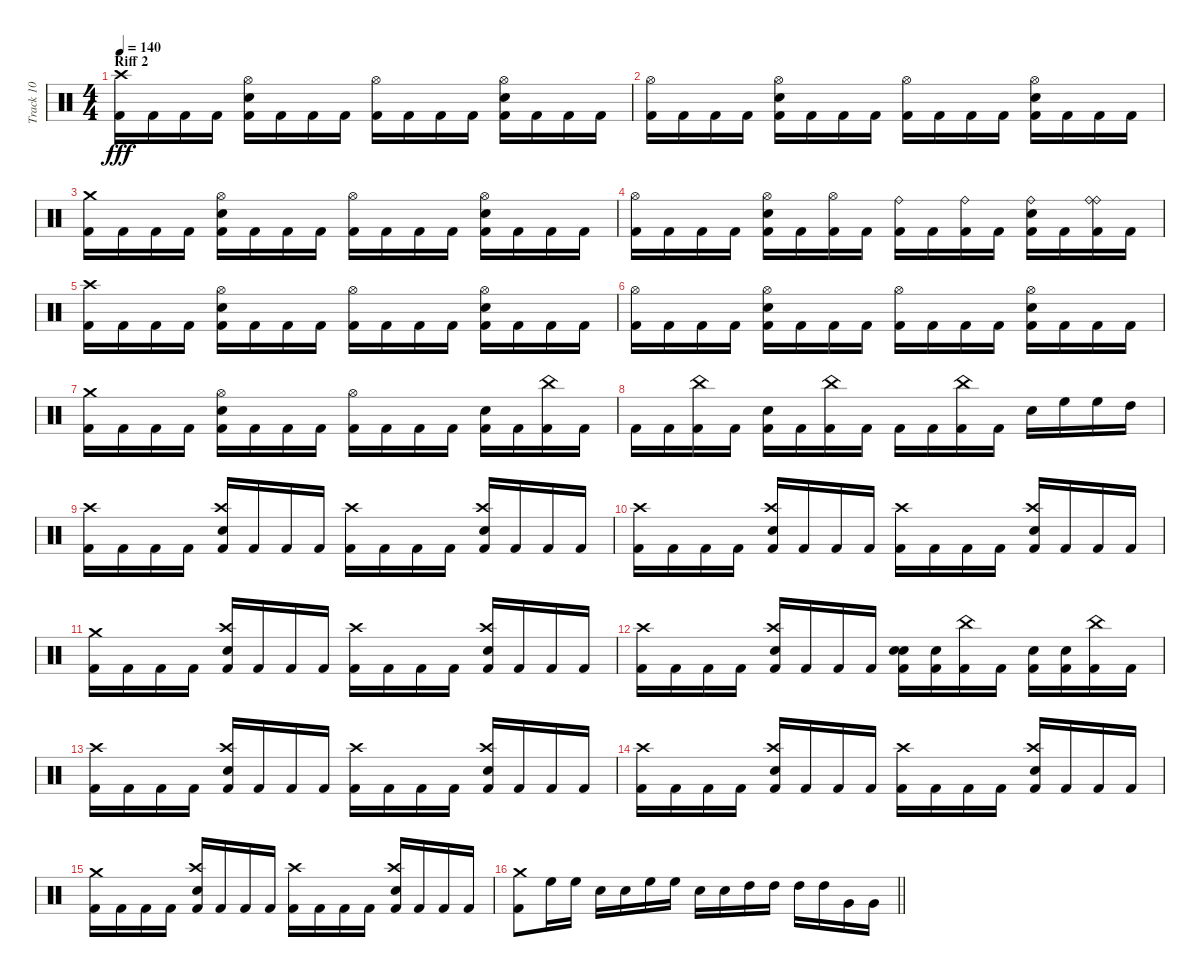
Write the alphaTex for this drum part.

\track ("Track 10" "Track 10") {instrument percussion}
\staff {score}
\articulation defaults
\ts (4 4)
\section ("" "Riff 2")
\tempo 140
\clef neutral
\ks c
("Kick (hit) 2" "Crash high (hit)").16{dy fff} "Kick (hit) 2".16 "Kick (hit) 2".16 "Kick (hit) 2".16 ("Snare (hit) 2" "Kick (hit) 2" "Hi-Hat (open)").16 "Kick (hit) 2".16 "Kick (hit) 2".16 "Kick (hit) 2".16 ("Hi-Hat (open)" "Kick (hit) 2").16 "Kick (hit) 2".16 "Kick (hit) 2".16 "Kick (hit) 2".16 ("Kick (hit) 2" "Snare (hit) 2" "Hi-Hat (open)").16 "Kick (hit) 2".16 "Kick (hit) 2".16 "Kick (hit) 2".16 |
("Kick (hit) 2" "Hi-Hat (open)").16 "Kick (hit) 2".16 "Kick (hit) 2".16 "Kick (hit) 2".16 ("Kick (hit) 2" "Snare (hit) 2" "Hi-Hat (open)").16 "Kick (hit) 2".16 "Kick (hit) 2".16 "Kick (hit) 2".16 ("Kick (hit) 2" "Hi-Hat (open)").16 "Kick (hit) 2".16 "Kick (hit) 2".16 "Kick (hit) 2".16 ("Hi-Hat (open)" "Snare (hit) 2" "Kick (hit) 2").16 "Kick (hit) 2".16 "Kick (hit) 2".16 "Kick (hit) 2".16 |
("Crash medium (hit)" "Kick (hit) 2").16 "Kick (hit) 2".16 "Kick (hit) 2".16 "Kick (hit) 2".16 ("Kick (hit) 2" "Hi-Hat (open)" "Snare (hit) 2").16 "Kick (hit) 2".16 "Kick (hit) 2".16 "Kick (hit) 2".16 ("Hi-Hat (open)" "Kick (hit) 2").16 "Kick (hit) 2".16 "Kick (hit) 2".16 "Kick (hit) 2".16 ("Snare (hit) 2" "Kick (hit) 2" "Hi-Hat (open)").16 "Kick (hit) 2".16 "Kick (hit) 2".16 "Kick (hit) 2".16 |
("Hi-Hat (open)" "Kick (hit) 2").16 "Kick (hit) 2".16 "Kick (hit) 2".16 "Kick (hit) 2".16 ("Hi-Hat (open)" "Kick (hit) 2" "Snare (hit) 2").16 "Kick (hit) 2".16 ("Kick (hit) 2" "Hi-Hat (open)").16 "Kick (hit) 2".16 ("Ride (bell)" "Kick (hit) 2").16 "Kick (hit) 2".16 ("Kick (hit) 2" "Ride (bell)").16 "Kick (hit) 2".16 ("Ride (bell)" "Snare (hit) 2" "Kick (hit) 2").16 "Kick (hit) 2".16 ("Ride (bell)" "Kick (hit) 2" "Ride (bell)").16 "Kick (hit) 2".16 |
("Kick (hit) 2" "Crash high (hit)").16 "Kick (hit) 2".16 "Kick (hit) 2".16 "Kick (hit) 2".16 ("Kick (hit) 2" "Hi-Hat (open)" "Snare (hit) 2").16 "Kick (hit) 2".16 "Kick (hit) 2".16 "Kick (hit) 2".16 ("Hi-Hat (open)" "Kick (hit) 2").16 "Kick (hit) 2".16 "Kick (hit) 2".16 "Kick (hit) 2".16 ("Snare (hit) 2" "Kick (hit) 2" "Hi-Hat (open)").16 "Kick (hit) 2".16 "Kick (hit) 2".16 "Kick (hit) 2".16 |
("Hi-Hat (open)" "Kick (hit) 2").16 "Kick (hit) 2".16 "Kick (hit) 2".16 "Kick (hit) 2".16 ("Hi-Hat (open)" "Kick (hit) 2" "Snare (hit) 2").16 "Kick (hit) 2".16 "Kick (hit) 2".16 "Kick (hit) 2".16 ("Kick (hit) 2" "Hi-Hat (open)").16 "Kick (hit) 2".16 "Kick (hit) 2".16 "Kick (hit) 2".16 ("Snare (hit) 2" "Hi-Hat (open)" "Kick (hit) 2").16 "Kick (hit) 2".16 "Kick (hit) 2".16 "Kick (hit) 2".16 |
("Crash medium (hit)" "Kick (hit) 2").16 "Kick (hit) 2".16 "Kick (hit) 2".16 "Kick (hit) 2".16 ("Kick (hit) 2" "Hi-Hat (open)" "Snare (hit) 2").16 "Kick (hit) 2".16 "Kick (hit) 2".16 "Kick (hit) 2".16 ("Hi-Hat (open)" "Kick (hit) 2").16 "Kick (hit) 2".16 "Kick (hit) 2".16 "Kick (hit) 2".16 ("Kick (hit) 2" "Snare (hit) 2").16 "Kick (hit) 2".16 ("China (hit)" "Kick (hit) 2").16 "Kick (hit) 2".16 |
"Kick (hit) 2".16 "Kick (hit) 2".16 ("Kick (hit) 2" "China (hit)").16 "Kick (hit) 2".16 ("Snare (hit) 2" "Kick (hit) 2").16 "Kick (hit) 2".16 ("China (hit)" "Kick (hit) 2").16 "Kick (hit) 2".16 "Kick (hit) 2".16 "Kick (hit) 2".16 ("China (hit)" "Kick (hit) 2").16 "Kick (hit) 2".16 "Snare (hit) 2".16 "High Floor Tom (hit)".16 "High Floor Tom (hit)".16 "High Tom (hit)".16 |
("Kick (hit) 2" "Crash high (hit)").16 "Kick (hit) 2".16 "Kick (hit) 2".16 "Kick (hit) 2".16 ("Snare (hit) 2" "Kick (hit) 2" "Crash high (hit)").16 "Kick (hit) 2".16 "Kick (hit) 2".16 "Kick (hit) 2".16 ("Kick (hit) 2" "Crash high (hit)").16 "Kick (hit) 2".16 "Kick (hit) 2".16 "Kick (hit) 2".16 ("Crash high (hit)" "Snare (hit) 2" "Kick (hit) 2").16 "Kick (hit) 2".16 "Kick (hit) 2".16 "Kick (hit) 2".16 |
("Kick (hit) 2" "Crash high (hit)").16 "Kick (hit) 2".16 "Kick (hit) 2".16 "Kick (hit) 2".16 ("Kick (hit) 2" "Snare (hit) 2" "Crash high (hit)").16 "Kick (hit) 2".16 "Kick (hit) 2".16 "Kick (hit) 2".16 ("Kick (hit) 2" "Crash high (hit)").16 "Kick (hit) 2".16 "Kick (hit) 2".16 "Kick (hit) 2".16 ("Crash high (hit)" "Kick (hit) 2" "Snare (hit) 2").16 "Kick (hit) 2".16 "Kick (hit) 2".16 "Kick (hit) 2".16 |
("Crash medium (hit)" "Kick (hit) 2").16 "Kick (hit) 2".16 "Kick (hit) 2".16 "Kick (hit) 2".16 ("Kick (hit) 2" "Snare (hit) 2" "Crash high (hit)").16 "Kick (hit) 2".16 "Kick (hit) 2".16 "Kick (hit) 2".16 ("Kick (hit) 2" "Crash high (hit)").16 "Kick (hit) 2".16 "Kick (hit) 2".16 "Kick (hit) 2".16 ("Crash high (hit)" "Snare (hit) 2" "Kick (hit) 2").16 "Kick (hit) 2".16 "Kick (hit) 2".16 "Kick (hit) 2".16 |
("Kick (hit) 2" "Crash high (hit)").16 "Kick (hit) 2".16 "Kick (hit) 2".16 "Kick (hit) 2".16 ("Kick (hit) 2" "Snare (hit) 2" "Crash high (hit)").16 "Kick (hit) 2".16 "Kick (hit) 2".16 "Kick (hit) 2".16 ("Snare (hit) 2" "Snare (hit) 2" "Kick (hit) 2").16 ("Snare (hit) 2" "Kick (hit) 2").16 ("China (hit)" "Kick (hit) 2").16 "Kick (hit) 2".16 ("Kick (hit) 2" "Snare (hit) 2").16 ("Kick (hit) 2" "Snare (hit) 2").16 ("China (hit)" "Kick (hit) 2").16 "Kick (hit) 2".16 |
("Kick (hit) 2" "Crash high (hit)").16 "Kick (hit) 2".16 "Kick (hit) 2".16 "Kick (hit) 2".16 ("Snare (hit) 2" "Kick (hit) 2" "Crash high (hit)").16 "Kick (hit) 2".16 "Kick (hit) 2".16 "Kick (hit) 2".16 ("Kick (hit) 2" "Crash high (hit)").16 "Kick (hit) 2".16 "Kick (hit) 2".16 "Kick (hit) 2".16 ("Crash high (hit)" "Kick (hit) 2" "Snare (hit) 2").16 "Kick (hit) 2".16 "Kick (hit) 2".16 "Kick (hit) 2".16 |
("Kick (hit) 2" "Crash high (hit)").16 "Kick (hit) 2".16 "Kick (hit) 2".16 "Kick (hit) 2".16 ("Kick (hit) 2" "Snare (hit) 2" "Crash high (hit)").16 "Kick (hit) 2".16 "Kick (hit) 2".16 "Kick (hit) 2".16 ("Kick (hit) 2" "Crash high (hit)").16 "Kick (hit) 2".16 "Kick (hit) 2".16 "Kick (hit) 2".16 ("Crash high (hit)" "Snare (hit) 2" "Kick (hit) 2").16 "Kick (hit) 2".16 "Kick (hit) 2".16 "Kick (hit) 2".16 |
("Crash medium (hit)" "Kick (hit) 2").16 "Kick (hit) 2".16 "Kick (hit) 2".16 "Kick (hit) 2".16 ("Kick (hit) 2" "Snare (hit) 2" "Crash high (hit)").16 "Kick (hit) 2".16 "Kick (hit) 2".16 "Kick (hit) 2".16 ("Kick (hit) 2" "Crash high (hit)").16 "Kick (hit) 2".16 "Kick (hit) 2".16 "Kick (hit) 2".16 ("Crash high (hit)" "Snare (hit) 2" "Kick (hit) 2").16 "Kick (hit) 2".16 "Kick (hit) 2".16 "Kick (hit) 2".16 |
\barLineRight lightlight
("Crash medium (hit)" "Kick (hit) 2").8 "High Floor Tom (hit)".16 "High Floor Tom (hit)".16 "Snare (hit) 2".16 "Snare (hit) 2".16 "High Floor Tom (hit)".16 "High Floor Tom (hit)".16 "Snare (hit) 2".16 "Snare (hit) 2".16 "High Tom (hit)".16 "High Tom (hit)".16 "High Tom (hit)".16 "High Tom (hit)".16 "Very Low Tom (hit)".16 "Very Low Tom (hit)".16
